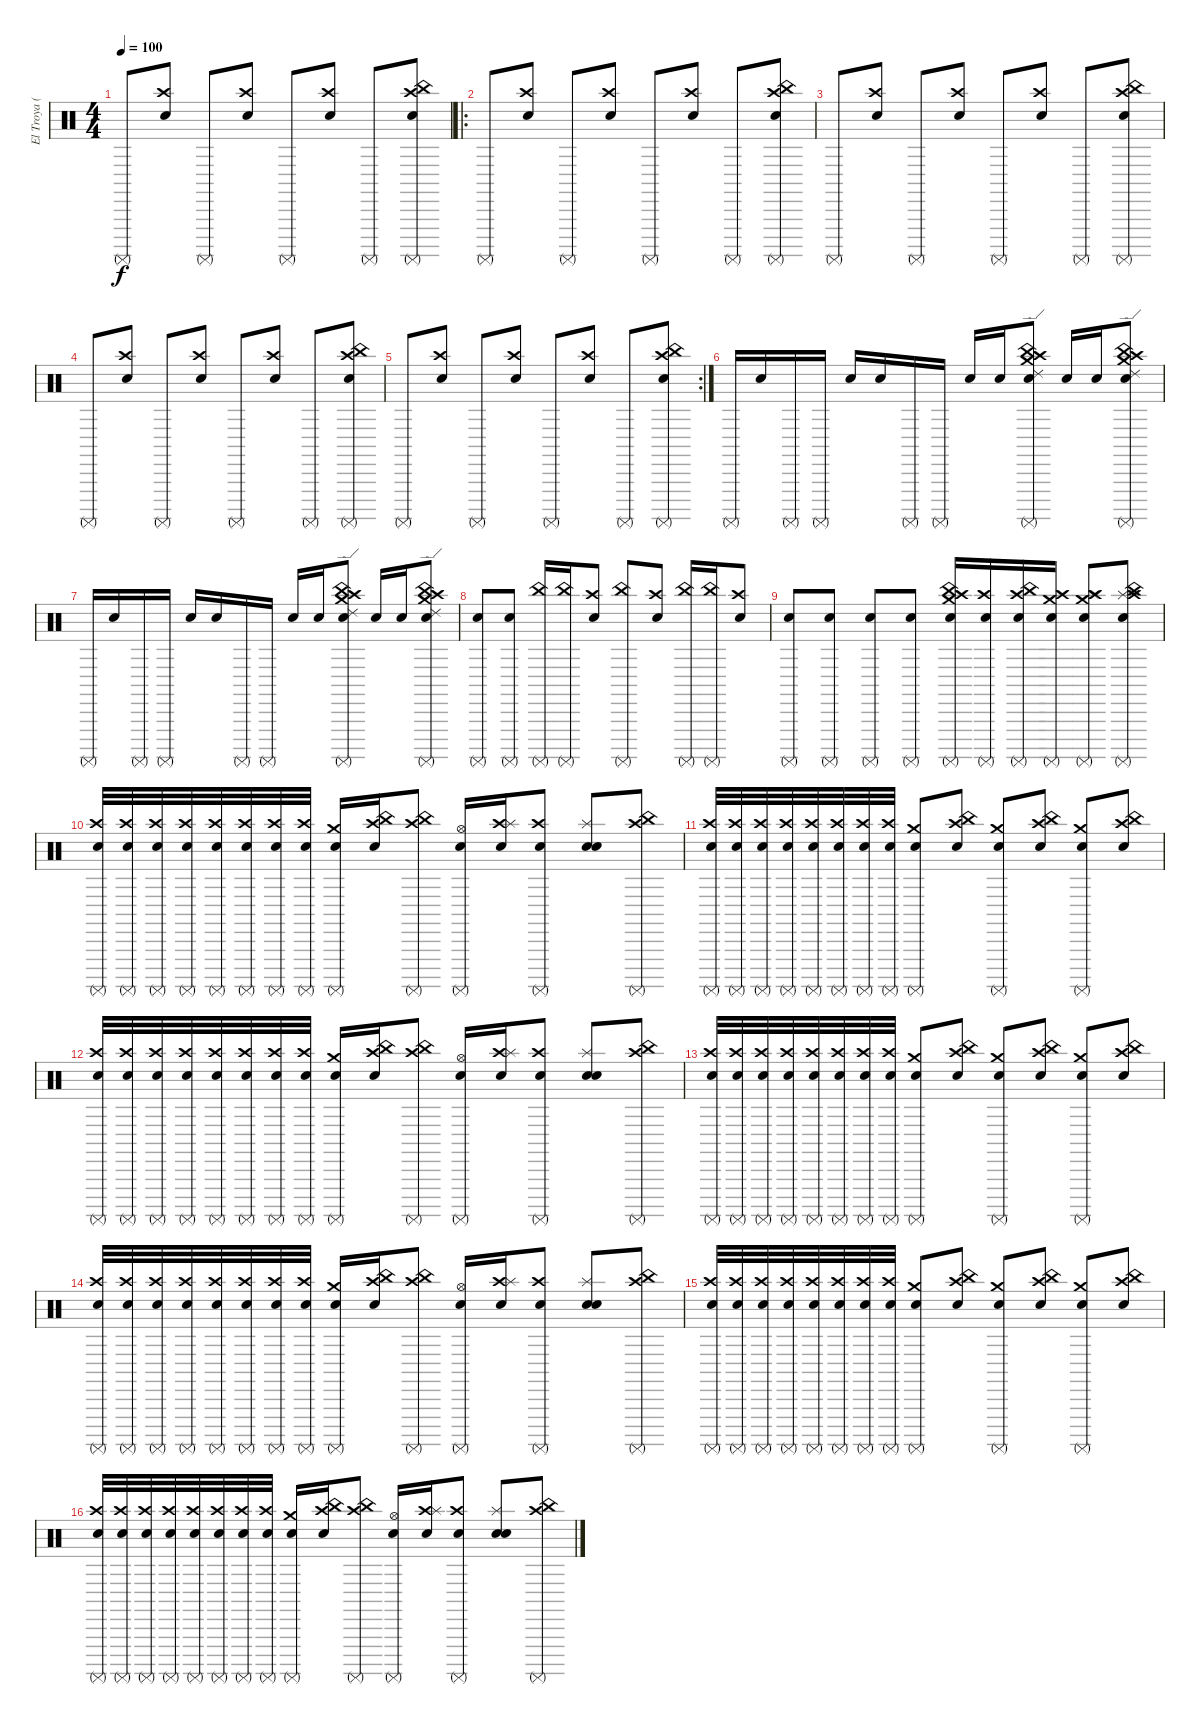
\track ("El Troya (Premio)" "El Troya (") {instrument percussion}
\staff {score}
\articulation defaults
\ts (4 4)
\tempo 100
\clef neutral
\ks c "Surdo (mute)".8{dy f}
("Crash high (hit)" "Electric Snare (hit)").8 "Surdo (mute)".8 ("Crash high (hit)" "Electric Snare (hit)").8 "Surdo (mute)".8 ("Crash high (hit)" "Electric Snare (hit)").8 "Surdo (mute)".8 ("Surdo (mute)" "China (hit)" "Crash high (hit)" "Electric Snare (hit)").8 |
\ro "Surdo (mute)".8
("Crash high (hit)" "Electric Snare (hit)").8 "Surdo (mute)".8 ("Crash high (hit)" "Electric Snare (hit)").8 "Surdo (mute)".8 ("Crash high (hit)" "Electric Snare (hit)").8 "Surdo (mute)".8 ("Surdo (mute)" "China (hit)" "Crash high (hit)" "Electric Snare (hit)").8 |
"Surdo (mute)".8 ("Crash high (hit)" "Electric Snare (hit)").8 "Surdo (mute)".8 ("Crash high (hit)" "Electric Snare (hit)").8 "Surdo (mute)".8 ("Crash high (hit)" "Electric Snare (hit)").8 "Surdo (mute)".8 ("Surdo (mute)" "China (hit)" "Crash high (hit)" "Electric Snare (hit)").8 |
"Surdo (mute)".8 ("Crash high (hit)" "Electric Snare (hit)").8 "Surdo (mute)".8 ("Crash high (hit)" "Electric Snare (hit)").8 "Surdo (mute)".8 ("Crash high (hit)" "Electric Snare (hit)").8 "Surdo (mute)".8 ("Surdo (mute)" "China (hit)" "Crash high (hit)" "Electric Snare (hit)").8 |
\rc 2 "Surdo (mute)".8
("Crash high (hit)" "Electric Snare (hit)").8 "Surdo (mute)".8 ("Crash high (hit)" "Electric Snare (hit)").8 "Surdo (mute)".8 ("Crash high (hit)" "Electric Snare (hit)").8 "Surdo (mute)".8 ("Surdo (mute)" "China (hit)" "Crash high (hit)" "Electric Snare (hit)").8 |
"Surdo (mute)".16 "Electric Snare (hit)".16 "Surdo (mute)".16 "Surdo (mute)".16 "Electric Snare (hit)".16 "Electric Snare (hit)".16 "Surdo (mute)".16 "Surdo (mute)".16 "Electric Snare (hit)".16 "Electric Snare (hit)".16 ("Ride (edge) 2" "Crash high (hit)" "China (hit)" "Crash medium (hit)" "Electric Snare (hit)" "Surdo (mute)").8 "Electric Snare (hit)".16 "Electric Snare (hit)".16 ("Crash high (hit)" "Ride (edge) 2" "Crash medium (hit)" "China (hit)" "Electric Snare (hit)" "Surdo (mute)").8 |
"Surdo (mute)".16 "Electric Snare (hit)".16 "Surdo (mute)".16 "Surdo (mute)".16 "Electric Snare (hit)".16 "Electric Snare (hit)".16 "Surdo (mute)".16 "Surdo (mute)".16 "Electric Snare (hit)".16 "Electric Snare (hit)".16 ("Ride (edge) 2" "Crash high (hit)" "China (hit)" "Crash medium (hit)" "Electric Snare (hit)" "Surdo (mute)").8 "Electric Snare (hit)".16 "Electric Snare (hit)".16 ("Crash high (hit)" "Ride (edge) 2" "Crash medium (hit)" "China (hit)" "Electric Snare (hit)" "Surdo (mute)").8 |
("Electric Snare (hit)" "Surdo (mute)").8 ("Surdo (mute)" "Electric Snare (hit)").8 ("China (hit)" "Surdo (mute)").16 ("China (hit)" "Surdo (mute)").16 ("Crash high (hit)" "Electric Snare (hit)").8 ("China (hit)" "Surdo (mute)").8 ("Crash high (hit)" "Electric Snare (hit)").8 ("China (hit)" "Surdo (mute)").16 ("China (hit)" "Surdo (mute)").16 ("Crash high (hit)" "Electric Snare (hit)").8 |
("Electric Snare (hit)" "Surdo (mute)").8 ("Surdo (mute)" "Electric Snare (hit)").8 ("Electric Snare (hit)" "Surdo (mute)").8 ("Surdo (mute)" "Electric Snare (hit)").8 ("Crash high (hit)" "Crash medium (hit)" "China (hit)" "Electric Snare (hit)" "Surdo (mute)").16 ("Crash high (hit)" "Electric Snare (hit)" "Surdo (mute)").16 ("China (hit)" "Crash high (hit)" "Electric Snare (hit)" "Surdo (mute)").16 ("Crash high (hit)" "Crash medium (hit)" "Electric Snare (hit)" "Surdo (mute)").16 ("Crash high (hit)" "Splash (hit)" "Crash medium (hit)" "Electric Snare (hit)" "Surdo (mute)").8 ("China (hit)" "Splash (hit)" "Electric Snare (hit)" "Crash high (hit)" "Surdo (mute)").8 |
("Snare (hit) 2" "Surdo (mute)" "Crash high (hit)").32 ("Snare (hit) 2" "Surdo (mute)" "Crash high (hit)").32 ("Snare (hit) 2" "Surdo (mute)" "Crash high (hit)").32 ("Snare (hit) 2" "Surdo (mute)" "Crash high (hit)").32 ("Snare (hit) 2" "Surdo (mute)" "Crash high (hit)").32 ("Snare (hit) 2" "Surdo (mute)" "Crash high (hit)").32 ("Snare (hit) 2" "Surdo (mute)" "Crash high (hit)").32 ("Snare (hit) 2" "Surdo (mute)" "Crash high (hit)").32 ("Surdo (mute)" "Electric Snare (hit)" "Crash medium (hit)").16 ("Snare (hit) 2" "Crash high (hit)" "China (hit)").16 ("Surdo (mute)" "Crash high (hit)" "China (hit)").8 ("Surdo (mute)" "Electric Snare (hit)" "Hi-Hat (open)").16 ("Snare (hit) 2" "Crash high (hit)" "Splash (hit)").16 ("Surdo (mute)" "Electric Snare (hit)" "Crash high (hit)").8 ("Snare (hit) 2" "Electric Snare (hit)" "Splash (hit)").8 ("Surdo (mute)" "Crash high (hit)" "China (hit)").8 |
("Snare (hit) 2" "Surdo (mute)" "Crash high (hit)").32 ("Snare (hit) 2" "Surdo (mute)" "Crash high (hit)").32 ("Snare (hit) 2" "Surdo (mute)" "Crash high (hit)").32 ("Snare (hit) 2" "Surdo (mute)" "Crash high (hit)").32 ("Snare (hit) 2" "Surdo (mute)" "Crash high (hit)").32 ("Snare (hit) 2" "Surdo (mute)" "Crash high (hit)").32 ("Snare (hit) 2" "Surdo (mute)" "Crash high (hit)").32 ("Snare (hit) 2" "Surdo (mute)" "Crash high (hit)").32 ("Surdo (mute)" "Electric Snare (hit)" "Crash medium (hit)").8 ("Snare (hit) 2" "Crash high (hit)" "China (hit)").8 ("Surdo (mute)" "Electric Snare (hit)" "Crash medium (hit)").8 ("Snare (hit) 2" "Crash high (hit)" "China (hit)").8 ("Surdo (mute)" "Electric Snare (hit)" "Crash medium (hit)").8 ("Snare (hit) 2" "Crash high (hit)" "China (hit)").8 |
("Snare (hit) 2" "Surdo (mute)" "Crash high (hit)").32 ("Snare (hit) 2" "Surdo (mute)" "Crash high (hit)").32 ("Snare (hit) 2" "Surdo (mute)" "Crash high (hit)").32 ("Snare (hit) 2" "Surdo (mute)" "Crash high (hit)").32 ("Snare (hit) 2" "Surdo (mute)" "Crash high (hit)").32 ("Snare (hit) 2" "Surdo (mute)" "Crash high (hit)").32 ("Snare (hit) 2" "Surdo (mute)" "Crash high (hit)").32 ("Snare (hit) 2" "Surdo (mute)" "Crash high (hit)").32 ("Surdo (mute)" "Electric Snare (hit)" "Crash medium (hit)").16 ("Snare (hit) 2" "Crash high (hit)" "China (hit)").16 ("Surdo (mute)" "Crash high (hit)" "China (hit)").8 ("Surdo (mute)" "Electric Snare (hit)" "Hi-Hat (open)").16 ("Snare (hit) 2" "Crash high (hit)" "Splash (hit)").16 ("Surdo (mute)" "Electric Snare (hit)" "Crash high (hit)").8 ("Snare (hit) 2" "Electric Snare (hit)" "Splash (hit)").8 ("Surdo (mute)" "Crash high (hit)" "China (hit)").8 |
("Snare (hit) 2" "Surdo (mute)" "Crash high (hit)").32 ("Snare (hit) 2" "Surdo (mute)" "Crash high (hit)").32 ("Snare (hit) 2" "Surdo (mute)" "Crash high (hit)").32 ("Snare (hit) 2" "Surdo (mute)" "Crash high (hit)").32 ("Snare (hit) 2" "Surdo (mute)" "Crash high (hit)").32 ("Snare (hit) 2" "Surdo (mute)" "Crash high (hit)").32 ("Snare (hit) 2" "Surdo (mute)" "Crash high (hit)").32 ("Snare (hit) 2" "Surdo (mute)" "Crash high (hit)").32 ("Surdo (mute)" "Electric Snare (hit)" "Crash medium (hit)").8 ("Snare (hit) 2" "Crash high (hit)" "China (hit)").8 ("Surdo (mute)" "Electric Snare (hit)" "Crash medium (hit)").8 ("Snare (hit) 2" "Crash high (hit)" "China (hit)").8 ("Surdo (mute)" "Electric Snare (hit)" "Crash medium (hit)").8 ("Snare (hit) 2" "Crash high (hit)" "China (hit)").8 |
("Snare (hit) 2" "Surdo (mute)" "Crash high (hit)").32 ("Snare (hit) 2" "Surdo (mute)" "Crash high (hit)").32 ("Snare (hit) 2" "Surdo (mute)" "Crash high (hit)").32 ("Snare (hit) 2" "Surdo (mute)" "Crash high (hit)").32 ("Snare (hit) 2" "Surdo (mute)" "Crash high (hit)").32 ("Snare (hit) 2" "Surdo (mute)" "Crash high (hit)").32 ("Snare (hit) 2" "Surdo (mute)" "Crash high (hit)").32 ("Snare (hit) 2" "Surdo (mute)" "Crash high (hit)").32 ("Surdo (mute)" "Electric Snare (hit)" "Crash medium (hit)").16 ("Snare (hit) 2" "Crash high (hit)" "China (hit)").16 ("Surdo (mute)" "Crash high (hit)" "China (hit)").8 ("Surdo (mute)" "Electric Snare (hit)" "Hi-Hat (open)").16 ("Snare (hit) 2" "Crash high (hit)" "Splash (hit)").16 ("Surdo (mute)" "Electric Snare (hit)" "Crash high (hit)").8 ("Snare (hit) 2" "Electric Snare (hit)" "Splash (hit)").8 ("Surdo (mute)" "Crash high (hit)" "China (hit)").8 |
("Snare (hit) 2" "Surdo (mute)" "Crash high (hit)").32 ("Snare (hit) 2" "Surdo (mute)" "Crash high (hit)").32 ("Snare (hit) 2" "Surdo (mute)" "Crash high (hit)").32 ("Snare (hit) 2" "Surdo (mute)" "Crash high (hit)").32 ("Snare (hit) 2" "Surdo (mute)" "Crash high (hit)").32 ("Snare (hit) 2" "Surdo (mute)" "Crash high (hit)").32 ("Snare (hit) 2" "Surdo (mute)" "Crash high (hit)").32 ("Snare (hit) 2" "Surdo (mute)" "Crash high (hit)").32 ("Surdo (mute)" "Electric Snare (hit)" "Crash medium (hit)").8 ("Snare (hit) 2" "Crash high (hit)" "China (hit)").8 ("Surdo (mute)" "Electric Snare (hit)" "Crash medium (hit)").8 ("Snare (hit) 2" "Crash high (hit)" "China (hit)").8 ("Surdo (mute)" "Electric Snare (hit)" "Crash medium (hit)").8 ("Snare (hit) 2" "Crash high (hit)" "China (hit)").8 |
("Snare (hit) 2" "Surdo (mute)" "Crash high (hit)").32 ("Snare (hit) 2" "Surdo (mute)" "Crash high (hit)").32 ("Snare (hit) 2" "Surdo (mute)" "Crash high (hit)").32 ("Snare (hit) 2" "Surdo (mute)" "Crash high (hit)").32 ("Snare (hit) 2" "Surdo (mute)" "Crash high (hit)").32 ("Snare (hit) 2" "Surdo (mute)" "Crash high (hit)").32 ("Snare (hit) 2" "Surdo (mute)" "Crash high (hit)").32 ("Snare (hit) 2" "Surdo (mute)" "Crash high (hit)").32 ("Surdo (mute)" "Electric Snare (hit)" "Crash medium (hit)").16 ("Snare (hit) 2" "Crash high (hit)" "China (hit)").16 ("Surdo (mute)" "Crash high (hit)" "China (hit)").8 ("Surdo (mute)" "Electric Snare (hit)" "Hi-Hat (open)").16 ("Snare (hit) 2" "Crash high (hit)" "Splash (hit)").16 ("Surdo (mute)" "Electric Snare (hit)" "Crash high (hit)").8 ("Snare (hit) 2" "Electric Snare (hit)" "Splash (hit)").8 ("Surdo (mute)" "Crash high (hit)" "China (hit)").8
